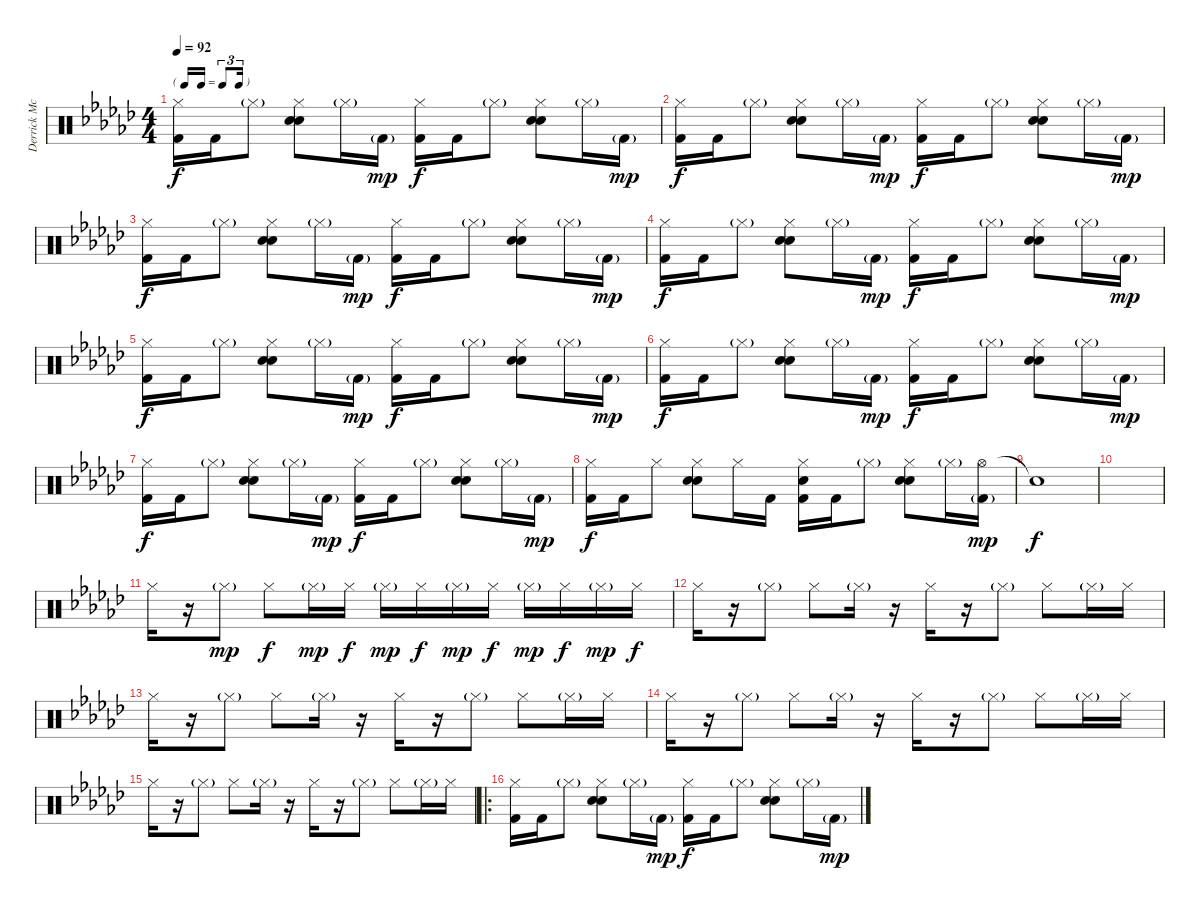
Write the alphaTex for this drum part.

\track ("Derrick McKenzie" "Derrick Mc") {instrument percussion}
\staff {score}
\articulation defaults
\ts (4 4)
\tf triplet16th
\tempo 92
\clef neutral
\ks ebminor
("Hi-Hat (closed)" "Kick (hit) 2").16{dy f} "Kick (hit) 2".16 "Hi-Hat (closed)"{g}.8 ("Hi-Hat (closed)" "Hand Clap (hit)" "Electric Snare (hit)").8 "Hi-Hat (closed)"{g}.16 "Kick (hit) 2"{g}.16{dy mp} ("Hi-Hat (closed)" "Kick (hit) 2").16{dy f} "Kick (hit) 2".16 "Hi-Hat (closed)"{g}.8 ("Hi-Hat (closed)" "Hand Clap (hit)" "Electric Snare (hit)").8 "Hi-Hat (closed)"{g}.16 "Kick (hit) 2"{g}.16{dy mp} |
("Hi-Hat (closed)" "Kick (hit) 2").16{dy f} "Kick (hit) 2".16 "Hi-Hat (closed)"{g}.8 ("Hi-Hat (closed)" "Hand Clap (hit)" "Electric Snare (hit)").8 "Hi-Hat (closed)"{g}.16 "Kick (hit) 2"{g}.16{dy mp} ("Hi-Hat (closed)" "Kick (hit) 2").16{dy f} "Kick (hit) 2".16 "Hi-Hat (closed)"{g}.8 ("Hi-Hat (closed)" "Hand Clap (hit)" "Electric Snare (hit)").8 "Hi-Hat (closed)"{g}.16 "Kick (hit) 2"{g}.16{dy mp} |
("Hi-Hat (closed)" "Kick (hit) 2").16{dy f} "Kick (hit) 2".16 "Hi-Hat (closed)"{g}.8 ("Hi-Hat (closed)" "Hand Clap (hit)" "Electric Snare (hit)").8 "Hi-Hat (closed)"{g}.16 "Kick (hit) 2"{g}.16{dy mp} ("Hi-Hat (closed)" "Kick (hit) 2").16{dy f} "Kick (hit) 2".16 "Hi-Hat (closed)"{g}.8 ("Hi-Hat (closed)" "Hand Clap (hit)" "Electric Snare (hit)").8 "Hi-Hat (closed)"{g}.16 "Kick (hit) 2"{g}.16{dy mp} |
("Hi-Hat (closed)" "Kick (hit) 2").16{dy f} "Kick (hit) 2".16 "Hi-Hat (closed)"{g}.8 ("Hi-Hat (closed)" "Hand Clap (hit)" "Electric Snare (hit)").8 "Hi-Hat (closed)"{g}.16 "Kick (hit) 2"{g}.16{dy mp} ("Hi-Hat (closed)" "Kick (hit) 2").16{dy f} "Kick (hit) 2".16 "Hi-Hat (closed)"{g}.8 ("Hi-Hat (closed)" "Hand Clap (hit)" "Electric Snare (hit)").8 "Hi-Hat (closed)"{g}.16 "Kick (hit) 2"{g}.16{dy mp} |
("Hi-Hat (closed)" "Kick (hit) 2").16{dy f} "Kick (hit) 2".16 "Hi-Hat (closed)"{g}.8 ("Hi-Hat (closed)" "Hand Clap (hit)" "Electric Snare (hit)").8 "Hi-Hat (closed)"{g}.16 "Kick (hit) 2"{g}.16{dy mp} ("Hi-Hat (closed)" "Kick (hit) 2").16{dy f} "Kick (hit) 2".16 "Hi-Hat (closed)"{g}.8 ("Hi-Hat (closed)" "Hand Clap (hit)" "Electric Snare (hit)").8 "Hi-Hat (closed)"{g}.16 "Kick (hit) 2"{g}.16{dy mp} |
("Hi-Hat (closed)" "Kick (hit) 2").16{dy f} "Kick (hit) 2".16 "Hi-Hat (closed)"{g}.8 ("Hi-Hat (closed)" "Hand Clap (hit)" "Electric Snare (hit)").8 "Hi-Hat (closed)"{g}.16 "Kick (hit) 2"{g}.16{dy mp} ("Hi-Hat (closed)" "Kick (hit) 2").16{dy f} "Kick (hit) 2".16 "Hi-Hat (closed)"{g}.8 ("Hi-Hat (closed)" "Hand Clap (hit)" "Electric Snare (hit)").8 "Hi-Hat (closed)"{g}.16 "Kick (hit) 2"{g}.16{dy mp} |
("Hi-Hat (closed)" "Kick (hit) 2").16{dy f} "Kick (hit) 2".16 "Hi-Hat (closed)"{g}.8 ("Hi-Hat (closed)" "Hand Clap (hit)" "Electric Snare (hit)").8 "Hi-Hat (closed)"{g}.16 "Kick (hit) 2"{g}.16{dy mp} ("Hi-Hat (closed)" "Kick (hit) 2").16{dy f} "Kick (hit) 2".16 "Hi-Hat (closed)"{g}.8 ("Hi-Hat (closed)" "Hand Clap (hit)" "Electric Snare (hit)").8 "Hi-Hat (closed)"{g}.16 "Kick (hit) 2"{g}.16{dy mp} |
("Hi-Hat (closed)" "Kick (hit) 2").16{dy f} "Kick (hit) 2".16 "Hi-Hat (closed)".8 ("Hi-Hat (closed)" "Hand Clap (hit)" "Electric Snare (hit)").8 "Hi-Hat (closed)".16 "Kick (hit) 2".16 ("Hi-Hat (closed)" "Hand Clap (hit)" "Kick (hit) 2").16 "Kick (hit) 2".16 "Hi-Hat (closed)"{g}.8 ("Hi-Hat (closed)" "Hand Clap (hit)" "Electric Snare (hit)").8 "Hi-Hat (closed)"{g}.16 ("Hi-Hat (open)" "Kick (hit) 2"{g}).16{dy mp} |
"Snare (hit)"{t}.1{dy f} |
|
"Hi-Hat (closed)".16 r.16 "Hi-Hat (closed)"{g}.8{dy mp} "Hi-Hat (closed)".8{dy f} "Hi-Hat (closed)"{g}.16{dy mp} "Hi-Hat (closed)".16{dy f} "Hi-Hat (closed)"{g}.16{dy mp} "Hi-Hat (closed)".16{dy f} "Hi-Hat (closed)"{g}.16{dy mp} "Hi-Hat (closed)".16{dy f} "Hi-Hat (closed)"{g}.16{dy mp} "Hi-Hat (closed)".16{dy f} "Hi-Hat (closed)"{g}.16{dy mp} "Hi-Hat (closed)".16{dy f} |
"Hi-Hat (closed)".16 r.16 "Hi-Hat (closed)"{g}.8 "Hi-Hat (closed)".8 "Hi-Hat (closed)"{g}.16 r.16 "Hi-Hat (closed)".16 r.16 "Hi-Hat (closed)"{g}.8 "Hi-Hat (closed)".8 "Hi-Hat (closed)"{g}.16 "Hi-Hat (closed)".16 |
"Hi-Hat (closed)".16 r.16 "Hi-Hat (closed)"{g}.8 "Hi-Hat (closed)".8 "Hi-Hat (closed)"{g}.16 r.16 "Hi-Hat (closed)".16 r.16 "Hi-Hat (closed)"{g}.8 "Hi-Hat (closed)".8 "Hi-Hat (closed)"{g}.16 "Hi-Hat (closed)".16 |
"Hi-Hat (closed)".16 r.16 "Hi-Hat (closed)"{g}.8 "Hi-Hat (closed)".8 "Hi-Hat (closed)"{g}.16 r.16 "Hi-Hat (closed)".16 r.16 "Hi-Hat (closed)"{g}.8 "Hi-Hat (closed)".8 "Hi-Hat (closed)"{g}.16 "Hi-Hat (closed)".16 |
"Hi-Hat (closed)".16 r.16 "Hi-Hat (closed)"{g}.8 "Hi-Hat (closed)".8 "Hi-Hat (closed)"{g}.16 r.16 "Hi-Hat (closed)".16 r.16 "Hi-Hat (closed)"{g}.8 "Hi-Hat (closed)".8 "Hi-Hat (closed)"{g}.16 "Hi-Hat (closed)".16 |
\ro
("Hi-Hat (closed)" "Kick (hit) 2").16 "Kick (hit) 2".16 "Hi-Hat (closed)"{g}.8 ("Hi-Hat (closed)" "Hand Clap (hit)" "Electric Snare (hit)").8 "Hi-Hat (closed)"{g}.16 "Kick (hit) 2"{g}.16{dy mp} ("Hi-Hat (closed)" "Kick (hit) 2").16{dy f} "Kick (hit) 2".16 "Hi-Hat (closed)"{g}.8 ("Hi-Hat (closed)" "Hand Clap (hit)" "Electric Snare (hit)").8 "Hi-Hat (closed)"{g}.16 "Kick (hit) 2"{g}.16{dy mp}
